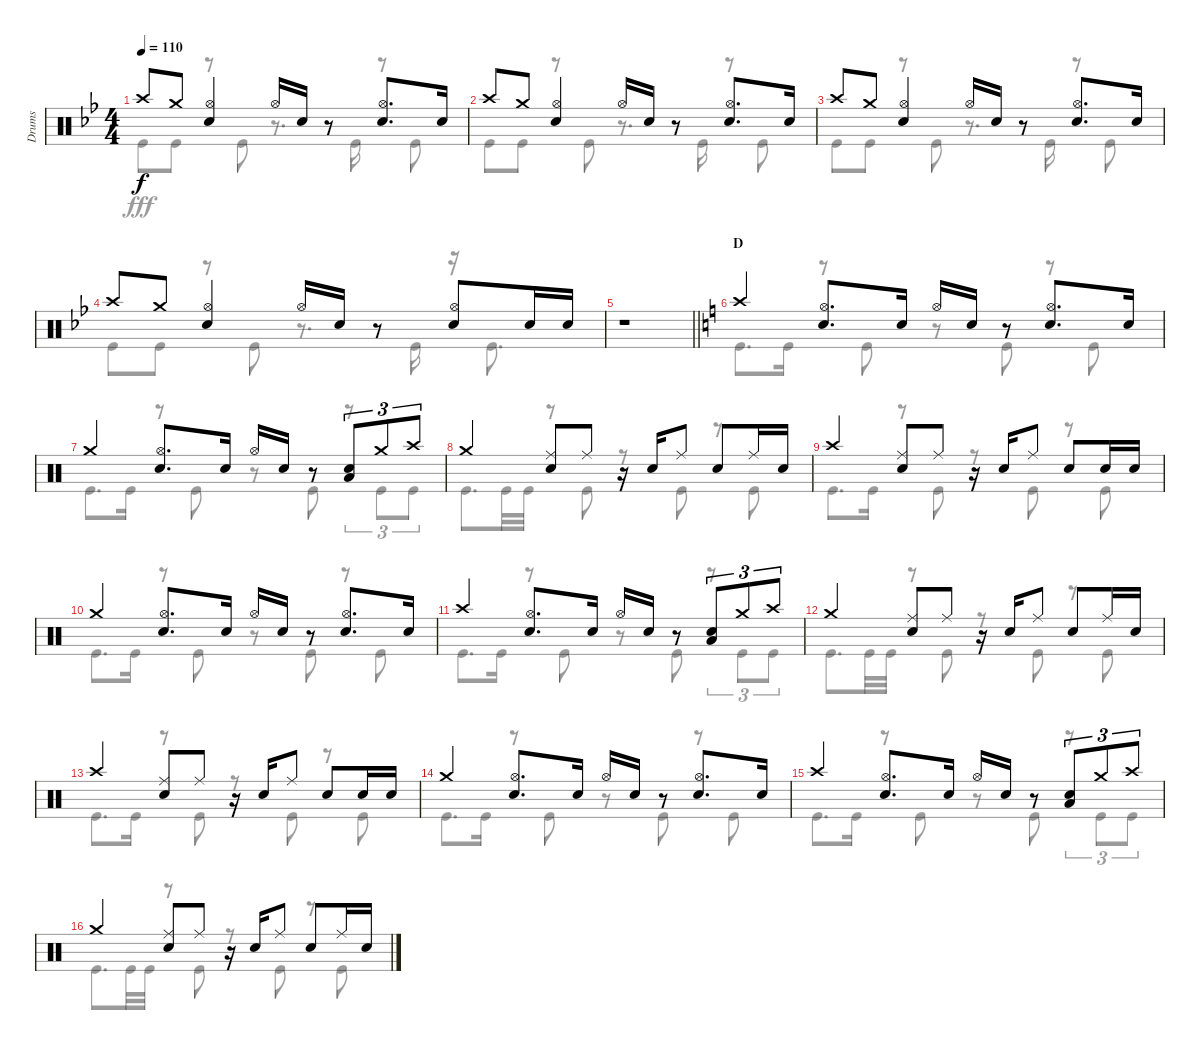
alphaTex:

\track ("Drums" "Drums") {instrument percussion}
\staff {score}
\articulation defaults
\voice
\ts (4 4)
\tempo 110
\clef neutral
\ks bb "Crash high (hit)".8{dy f} "Crash medium (hit)".8
("Hi-Hat (open)" "Snare (hit) 2").4 "Hi-Hat (open)".16 "Snare (hit) 2".16 r.8 ("Hi-Hat (open)" "Snare (hit) 2").8{d} "Snare (hit) 2".16 |
"Crash high (hit)".8 "Crash medium (hit)".8 ("Hi-Hat (open)" "Snare (hit) 2").4 "Hi-Hat (open)".16 "Snare (hit) 2".16 r.8 ("Hi-Hat (open)" "Snare (hit) 2").8{d} "Snare (hit) 2".16 |
"Crash high (hit)".8 "Crash medium (hit)".8 ("Hi-Hat (open)" "Snare (hit) 2").4 "Hi-Hat (open)".16 "Snare (hit) 2".16 r.8 ("Hi-Hat (open)" "Snare (hit) 2").8{d} "Snare (hit) 2".16 |
"Crash high (hit)".8 "Crash medium (hit)".8 ("Hi-Hat (open)" "Snare (hit) 2").4 "Hi-Hat (open)".16 "Snare (hit) 2".16 r.8 ("Hi-Hat (open)" "Snare (hit) 2").8 "Snare (hit) 2".16 "Snare (hit) 2".16 |
\barLineRight lightlight
r.1 |
\section ("" "D")
\ks c "Crash high (hit)".4
("Hi-Hat (open)" "Snare (hit) 2").8{d} "Snare (hit) 2".16 "Hi-Hat (open)".16 "Snare (hit) 2".16 r.8 ("Hi-Hat (open)" "Snare (hit) 2").8{d} "Snare (hit) 2".16 |
"Crash medium (hit)".4 ("Hi-Hat (open)" "Snare (hit) 2").8{d} "Snare (hit) 2".16 "Hi-Hat (open)".16 "Snare (hit) 2".16 r.8 ("Snare (hit) 2" "Low Tom (hit)").8{tu (3 2)} "Crash medium (hit)".8{tu (3 2)} "Crash high (hit)".8{tu (3 2)} |
"Crash medium (hit)".4 ("Ride (middle)" "Snare (hit) 2").8 "Ride (middle)".8 r.16 "Snare (hit) 2".16 "Ride (middle)".8 "Snare (hit) 2".8 "Ride (middle)".16 "Snare (hit) 2".16 |
"Crash high (hit)".4 ("Ride (middle)" "Snare (hit) 2").8 "Ride (middle)".8 r.16 "Snare (hit) 2".16 "Ride (middle)".8 "Snare (hit) 2".8 "Snare (hit) 2".16 "Snare (hit) 2".16 |
"Crash medium (hit)".4 ("Hi-Hat (open)" "Snare (hit) 2").8{d} "Snare (hit) 2".16 "Hi-Hat (open)".16 "Snare (hit) 2".16 r.8 ("Hi-Hat (open)" "Snare (hit) 2").8{d} "Snare (hit) 2".16 |
"Crash high (hit)".4 ("Hi-Hat (open)" "Snare (hit) 2").8{d} "Snare (hit) 2".16 "Hi-Hat (open)".16 "Snare (hit) 2".16 r.8 ("Snare (hit) 2" "Low Tom (hit)").8{tu (3 2)} "Crash medium (hit)".8{tu (3 2)} "Crash high (hit)".8{tu (3 2)} |
"Crash medium (hit)".4 ("Ride (middle)" "Snare (hit) 2").8 "Ride (middle)".8 r.16 "Snare (hit) 2".16 "Ride (middle)".8 "Snare (hit) 2".8 "Ride (middle)".16 "Snare (hit) 2".16 |
"Crash high (hit)".4 ("Ride (middle)" "Snare (hit) 2").8 "Ride (middle)".8 r.16 "Snare (hit) 2".16 "Ride (middle)".8 "Snare (hit) 2".8 "Snare (hit) 2".16 "Snare (hit) 2".16 |
"Crash medium (hit)".4 ("Hi-Hat (open)" "Snare (hit) 2").8{d} "Snare (hit) 2".16 "Hi-Hat (open)".16 "Snare (hit) 2".16 r.8 ("Hi-Hat (open)" "Snare (hit) 2").8{d} "Snare (hit) 2".16 |
"Crash high (hit)".4 ("Hi-Hat (open)" "Snare (hit) 2").8{d} "Snare (hit) 2".16 "Hi-Hat (open)".16 "Snare (hit) 2".16 r.8 ("Snare (hit) 2" "Low Tom (hit)").8{tu (3 2)} "Crash medium (hit)".8{tu (3 2)} "Crash high (hit)".8{tu (3 2)} |
"Crash medium (hit)".4 ("Ride (middle)" "Snare (hit) 2").8 "Ride (middle)".8 r.16 "Snare (hit) 2".16 "Ride (middle)".8 "Snare (hit) 2".8 "Ride (middle)".16 "Snare (hit) 2".16
\voice
\clef neutral
\ottava regular
\simile none
\ks bb "Kick (hit)".8{dy fff} "Kick (hit)".8
r.8 "Kick (hit)".8 r.8{d} "Kick (hit)".16 r.8 "Kick (hit)".8 |
"Kick (hit)".8 "Kick (hit)".8 r.8 "Kick (hit)".8 r.8{d} "Kick (hit)".16 r.8 "Kick (hit)".8 |
"Kick (hit)".8 "Kick (hit)".8 r.8 "Kick (hit)".8 r.8{d} "Kick (hit)".16 r.8 "Kick (hit)".8 |
"Kick (hit)".8 "Kick (hit)".8 r.8 "Kick (hit)".8 r.8{d} "Kick (hit)".16 r.16 "Kick (hit)".8{d} |
\barLineRight lightlight
r.1 |
\ks c "Kick (hit)".8{d} "Kick (hit)".16
r.8 "Kick (hit)".8 r.8 "Kick (hit)".8 r.8 "Kick (hit)".8 |
"Kick (hit)".8{d} "Kick (hit)".16 r.8 "Kick (hit)".8 r.8 "Kick (hit)".8 r.8{tu (3 2)} "Kick (hit)".8{tu (3 2)} "Kick (hit)".8{tu (3 2)} |
"Kick (hit)".8{d} "Kick (hit)".32 "Kick (hit)".32 r.8 "Kick (hit)".8 r.8 "Kick (hit)".8 r.8 "Kick (hit)".8 |
"Kick (hit)".8{d} "Kick (hit)".16 r.8 "Kick (hit)".8 r.8 "Kick (hit)".8 r.8 "Kick (hit)".8 |
"Kick (hit)".8{d} "Kick (hit)".16 r.8 "Kick (hit)".8 r.8 "Kick (hit)".8 r.8 "Kick (hit)".8 |
"Kick (hit)".8{d} "Kick (hit)".16 r.8 "Kick (hit)".8 r.8 "Kick (hit)".8 r.8{tu (3 2)} "Kick (hit)".8{tu (3 2)} "Kick (hit)".8{tu (3 2)} |
"Kick (hit)".8{d} "Kick (hit)".32 "Kick (hit)".32 r.8 "Kick (hit)".8 r.8 "Kick (hit)".8 r.8 "Kick (hit)".8 |
"Kick (hit)".8{d} "Kick (hit)".16 r.8 "Kick (hit)".8 r.8 "Kick (hit)".8 r.8 "Kick (hit)".8 |
"Kick (hit)".8{d} "Kick (hit)".16 r.8 "Kick (hit)".8 r.8 "Kick (hit)".8 r.8 "Kick (hit)".8 |
"Kick (hit)".8{d} "Kick (hit)".16 r.8 "Kick (hit)".8 r.8 "Kick (hit)".8 r.8{tu (3 2)} "Kick (hit)".8{tu (3 2)} "Kick (hit)".8{tu (3 2)} |
"Kick (hit)".8{d} "Kick (hit)".32 "Kick (hit)".32 r.8 "Kick (hit)".8 r.8 "Kick (hit)".8 r.8 "Kick (hit)".8
